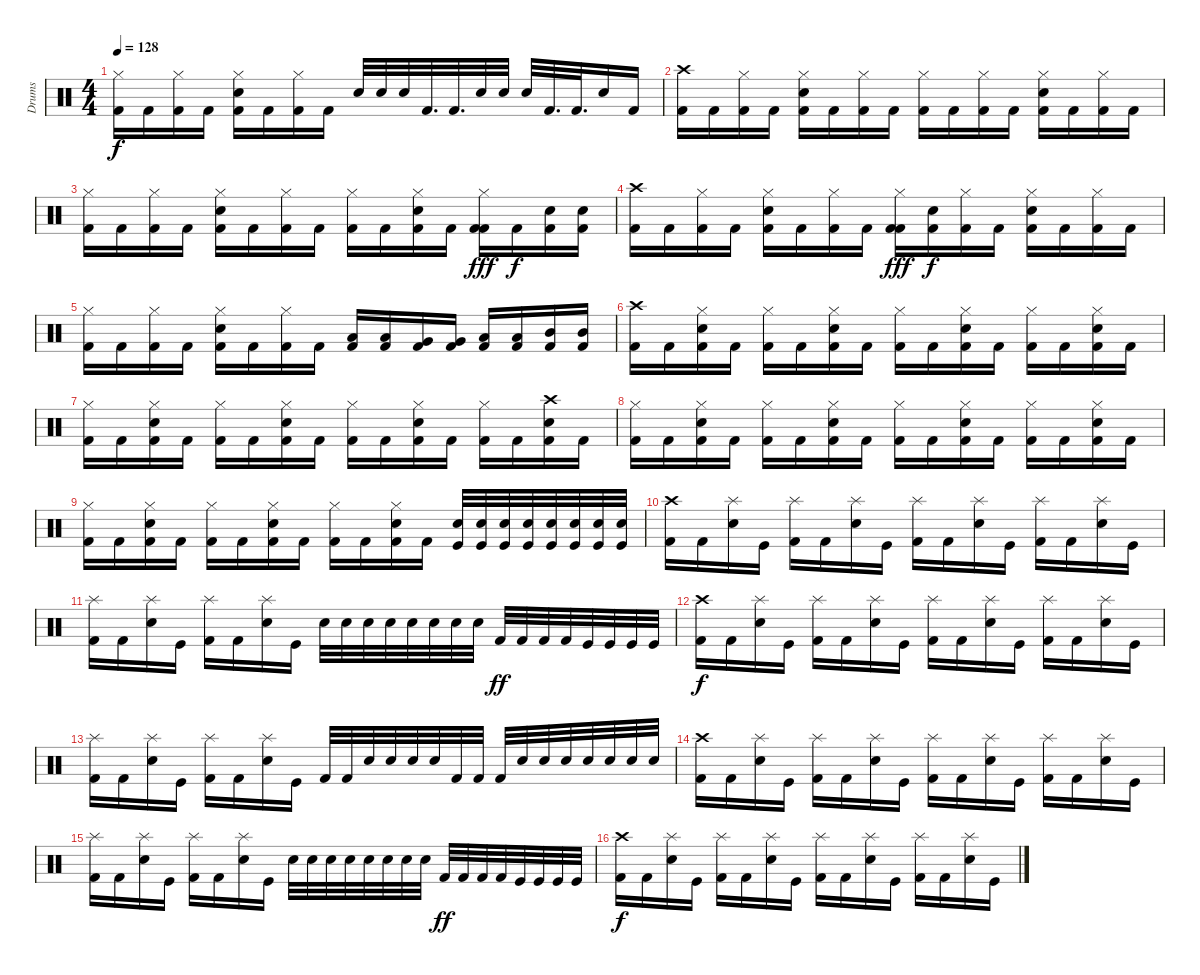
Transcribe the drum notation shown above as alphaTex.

\track ("Drums" "Drums") {instrument percussion}
\staff {score}
\articulation defaults
\ts (4 4)
\tempo 128
\clef neutral
\ks c
("Hi-Hat (closed)" "Kick (hit) 2").16{dy f} "Kick (hit) 2".16 ("Hi-Hat (closed)" "Kick (hit) 2").16 "Kick (hit) 2".16 ("Hi-Hat (closed)" "Electric Snare (hit)" "Kick (hit) 2").16 "Kick (hit) 2".16 ("Hi-Hat (closed)" "Kick (hit) 2").16 "Kick (hit) 2".16 "Electric Snare (hit)".32 "Electric Snare (hit)".32 "Electric Snare (hit)".32 "Kick (hit) 2".32{d} "Kick (hit) 2".32{d} "Electric Snare (hit)".32 "Electric Snare (hit)".32 "Electric Snare (hit)".32 "Kick (hit) 2".32{d} "Kick (hit) 2".32{d} "Electric Snare (hit)".16 "Kick (hit) 2".16 |
("Crash high (hit)" "Kick (hit) 2").16 "Kick (hit) 2".16 ("Hi-Hat (closed)" "Kick (hit) 2").16 "Kick (hit) 2".16 ("Hi-Hat (closed)" "Electric Snare (hit)" "Kick (hit) 2").16 "Kick (hit) 2".16 ("Hi-Hat (closed)" "Kick (hit) 2").16 "Kick (hit) 2".16 ("Hi-Hat (closed)" "Kick (hit) 2").16 "Kick (hit) 2".16 ("Hi-Hat (closed)" "Kick (hit) 2").16 "Kick (hit) 2".16 ("Hi-Hat (closed)" "Electric Snare (hit)" "Kick (hit) 2").16 "Kick (hit) 2".16 ("Hi-Hat (closed)" "Kick (hit) 2").16 "Kick (hit) 2".16 |
("Hi-Hat (closed)" "Kick (hit) 2").16 "Kick (hit) 2".16 ("Hi-Hat (closed)" "Kick (hit) 2").16 "Kick (hit) 2".16 ("Hi-Hat (closed)" "Electric Snare (hit)" "Kick (hit) 2").16 "Kick (hit) 2".16 ("Hi-Hat (closed)" "Kick (hit) 2").16 "Kick (hit) 2".16 ("Hi-Hat (closed)" "Kick (hit) 2").16 "Kick (hit) 2".16 ("Hi-Hat (closed)" "Electric Snare (hit)" "Kick (hit) 2").16 "Kick (hit) 2".16 ("Hi-Hat (closed)" "Kick (hit) 2" "Kick (hit) 2").16{dy fff} "Kick (hit) 2".16{dy f} ("Electric Snare (hit)" "Kick (hit) 2").16 ("Electric Snare (hit)" "Kick (hit) 2").16 |
("Crash high (hit)" "Kick (hit) 2").16 "Kick (hit) 2".16 ("Hi-Hat (closed)" "Kick (hit) 2").16 "Kick (hit) 2".16 ("Hi-Hat (closed)" "Electric Snare (hit)" "Kick (hit) 2").16 "Kick (hit) 2".16 ("Hi-Hat (closed)" "Kick (hit) 2").16 "Kick (hit) 2".16 ("Hi-Hat (closed)" "Kick (hit) 2" "Kick (hit) 2").16{dy fff} ("Electric Snare (hit)" "Kick (hit) 2").16{dy f} ("Hi-Hat (closed)" "Kick (hit) 2").16 "Kick (hit) 2".16 ("Hi-Hat (closed)" "Electric Snare (hit)" "Kick (hit) 2").16 "Kick (hit) 2".16 ("Hi-Hat (closed)" "Kick (hit) 2").16 "Kick (hit) 2".16 |
("Hi-Hat (closed)" "Kick (hit) 2").16 "Kick (hit) 2".16 ("Hi-Hat (closed)" "Kick (hit) 2").16 "Kick (hit) 2".16 ("Hi-Hat (closed)" "Electric Snare (hit)" "Kick (hit) 2").16 "Kick (hit) 2".16 ("Hi-Hat (closed)" "Kick (hit) 2").16 "Kick (hit) 2".16 ("Low Floor Tom (hit)" "Kick (hit) 2").16 ("Low Floor Tom (hit)" "Kick (hit) 2").16 ("Very Low Tom (hit)" "Kick (hit) 2").16 ("Very Low Tom (hit)" "Kick (hit) 2").16 ("Low Tom (hit)" "Kick (hit) 2").16 ("Low Tom (hit)" "Kick (hit) 2").16 ("Mid Tom (hit)" "Kick (hit) 2").16 ("Mid Tom (hit)" "Kick (hit) 2").16 |
("Crash high (hit)" "Kick (hit) 2").16 "Kick (hit) 2".16 ("Hi-Hat (closed)" "Electric Snare (hit)" "Kick (hit) 2").16 "Kick (hit) 2".16 ("Hi-Hat (closed)" "Kick (hit) 2").16 "Kick (hit) 2".16 ("Hi-Hat (closed)" "Electric Snare (hit)" "Kick (hit) 2").16 "Kick (hit) 2".16 ("Hi-Hat (closed)" "Kick (hit) 2").16 "Kick (hit) 2".16 ("Hi-Hat (closed)" "Electric Snare (hit)" "Kick (hit) 2").16 "Kick (hit) 2".16 ("Hi-Hat (closed)" "Kick (hit) 2").16 "Kick (hit) 2".16 ("Hi-Hat (closed)" "Electric Snare (hit)" "Kick (hit) 2").16 "Kick (hit) 2".16 |
("Hi-Hat (closed)" "Kick (hit) 2").16 "Kick (hit) 2".16 ("Hi-Hat (closed)" "Electric Snare (hit)" "Kick (hit) 2").16 "Kick (hit) 2".16 ("Hi-Hat (closed)" "Kick (hit) 2").16 "Kick (hit) 2".16 ("Hi-Hat (closed)" "Electric Snare (hit)" "Kick (hit) 2").16 "Kick (hit) 2".16 ("Hi-Hat (closed)" "Kick (hit) 2").16 "Kick (hit) 2".16 ("Hi-Hat (closed)" "Electric Snare (hit)" "Kick (hit) 2").16 "Kick (hit) 2".16 ("Hi-Hat (closed)" "Kick (hit) 2").16 "Kick (hit) 2".16 ("Crash high (hit)" "Electric Snare (hit)" "Kick (hit) 2").16 "Kick (hit) 2".16 |
("Hi-Hat (closed)" "Kick (hit) 2").16 "Kick (hit) 2".16 ("Hi-Hat (closed)" "Electric Snare (hit)" "Kick (hit) 2").16 "Kick (hit) 2".16 ("Hi-Hat (closed)" "Kick (hit) 2").16 "Kick (hit) 2".16 ("Hi-Hat (closed)" "Electric Snare (hit)" "Kick (hit) 2").16 "Kick (hit) 2".16 ("Hi-Hat (closed)" "Kick (hit) 2").16 "Kick (hit) 2".16 ("Hi-Hat (closed)" "Electric Snare (hit)" "Kick (hit) 2").16 "Kick (hit) 2".16 ("Hi-Hat (closed)" "Kick (hit) 2").16 "Kick (hit) 2".16 ("Hi-Hat (closed)" "Electric Snare (hit)" "Kick (hit) 2").16 "Kick (hit) 2".16 |
("Hi-Hat (closed)" "Kick (hit) 2").16 "Kick (hit) 2".16 ("Hi-Hat (closed)" "Electric Snare (hit)" "Kick (hit) 2").16 "Kick (hit) 2".16 ("Hi-Hat (closed)" "Kick (hit) 2").16 "Kick (hit) 2".16 ("Hi-Hat (closed)" "Electric Snare (hit)" "Kick (hit) 2").16 "Kick (hit) 2".16 ("Hi-Hat (closed)" "Kick (hit) 2").16 "Kick (hit) 2".16 ("Hi-Hat (closed)" "Electric Snare (hit)" "Kick (hit) 2").16 "Kick (hit) 2".16 ("Electric Snare (hit)" "Kick (hit)").32 ("Electric Snare (hit)" "Kick (hit)").32 ("Electric Snare (hit)" "Kick (hit)").32 ("Electric Snare (hit)" "Kick (hit)").32 ("Electric Snare (hit)" "Kick (hit)").32 ("Electric Snare (hit)" "Kick (hit)").32 ("Electric Snare (hit)" "Kick (hit)").32 ("Electric Snare (hit)" "Kick (hit)").32 |
("Crash high (hit)" "Kick (hit) 2").16 "Kick (hit) 2".16 ("Splash (hit)" "Electric Snare (hit)").16 "Kick (hit)".16 ("Splash (hit)" "Kick (hit) 2").16 "Kick (hit) 2".16 ("Splash (hit)" "Electric Snare (hit)").16 "Kick (hit)".16 ("Splash (hit)" "Kick (hit) 2").16 "Kick (hit) 2".16 ("Splash (hit)" "Electric Snare (hit)").16 "Kick (hit)".16 ("Splash (hit)" "Kick (hit) 2").16 "Kick (hit) 2".16 ("Splash (hit)" "Electric Snare (hit)").16 "Kick (hit)".16 |
("Splash (hit)" "Kick (hit) 2").16 "Kick (hit) 2".16 ("Splash (hit)" "Electric Snare (hit)").16 "Kick (hit)".16 ("Splash (hit)" "Kick (hit) 2").16 "Kick (hit) 2".16 ("Splash (hit)" "Electric Snare (hit)").16 "Kick (hit)".16 "Electric Snare (hit)".32 "Electric Snare (hit)".32 "Electric Snare (hit)".32 "Electric Snare (hit)".32 "Snare (hit) 2".32 "Snare (hit) 2".32 "Snare (hit) 2".32 "Snare (hit) 2".32 "Kick (hit) 2".32{dy ff} "Kick (hit) 2".32 "Kick (hit) 2".32 "Kick (hit) 2".32 "Kick (hit)".32 "Kick (hit)".32 "Kick (hit)".32 "Kick (hit)".32 |
("Crash high (hit)" "Kick (hit) 2").16{dy f} "Kick (hit) 2".16 ("Splash (hit)" "Electric Snare (hit)").16 "Kick (hit)".16 ("Splash (hit)" "Kick (hit) 2").16 "Kick (hit) 2".16 ("Splash (hit)" "Electric Snare (hit)").16 "Kick (hit)".16 ("Splash (hit)" "Kick (hit) 2").16 "Kick (hit) 2".16 ("Splash (hit)" "Electric Snare (hit)").16 "Kick (hit)".16 ("Splash (hit)" "Kick (hit) 2").16 "Kick (hit) 2".16 ("Splash (hit)" "Electric Snare (hit)").16 "Kick (hit)".16 |
("Splash (hit)" "Kick (hit) 2").16 "Kick (hit) 2".16 ("Splash (hit)" "Electric Snare (hit)").16 "Kick (hit)".16 ("Splash (hit)" "Kick (hit) 2").16 "Kick (hit) 2".16 ("Splash (hit)" "Electric Snare (hit)").16 "Kick (hit)".16 "Kick (hit) 2".32 "Kick (hit) 2".32 "Electric Snare (hit)".32 "Electric Snare (hit)".32 "Snare (hit) 2".32 "Snare (hit) 2".32 "Kick (hit) 2".32 "Kick (hit) 2".32 "Kick (hit) 2".32 "Electric Snare (hit)".32 "Electric Snare (hit)".32 "Electric Snare (hit)".32 "Snare (hit) 2".32 "Snare (hit) 2".32 "Snare (hit) 2".32 "Snare (hit) 2".32 |
("Crash high (hit)" "Kick (hit) 2").16 "Kick (hit) 2".16 ("Splash (hit)" "Electric Snare (hit)").16 "Kick (hit)".16 ("Splash (hit)" "Kick (hit) 2").16 "Kick (hit) 2".16 ("Splash (hit)" "Electric Snare (hit)").16 "Kick (hit)".16 ("Splash (hit)" "Kick (hit) 2").16 "Kick (hit) 2".16 ("Splash (hit)" "Electric Snare (hit)").16 "Kick (hit)".16 ("Splash (hit)" "Kick (hit) 2").16 "Kick (hit) 2".16 ("Splash (hit)" "Electric Snare (hit)").16 "Kick (hit)".16 |
("Splash (hit)" "Kick (hit) 2").16 "Kick (hit) 2".16 ("Splash (hit)" "Electric Snare (hit)").16 "Kick (hit)".16 ("Splash (hit)" "Kick (hit) 2").16 "Kick (hit) 2".16 ("Splash (hit)" "Electric Snare (hit)").16 "Kick (hit)".16 "Electric Snare (hit)".32 "Electric Snare (hit)".32 "Electric Snare (hit)".32 "Electric Snare (hit)".32 "Snare (hit) 2".32 "Snare (hit) 2".32 "Snare (hit) 2".32 "Snare (hit) 2".32 "Kick (hit) 2".32{dy ff} "Kick (hit) 2".32 "Kick (hit) 2".32 "Kick (hit) 2".32 "Kick (hit)".32 "Kick (hit)".32 "Kick (hit)".32 "Kick (hit)".32 |
("Crash high (hit)" "Kick (hit) 2").16{dy f} "Kick (hit) 2".16 ("Splash (hit)" "Electric Snare (hit)").16 "Kick (hit)".16 ("Splash (hit)" "Kick (hit) 2").16 "Kick (hit) 2".16 ("Splash (hit)" "Electric Snare (hit)").16 "Kick (hit)".16 ("Splash (hit)" "Kick (hit) 2").16 "Kick (hit) 2".16 ("Splash (hit)" "Electric Snare (hit)").16 "Kick (hit)".16 ("Splash (hit)" "Kick (hit) 2").16 "Kick (hit) 2".16 ("Splash (hit)" "Electric Snare (hit)").16 "Kick (hit)".16
